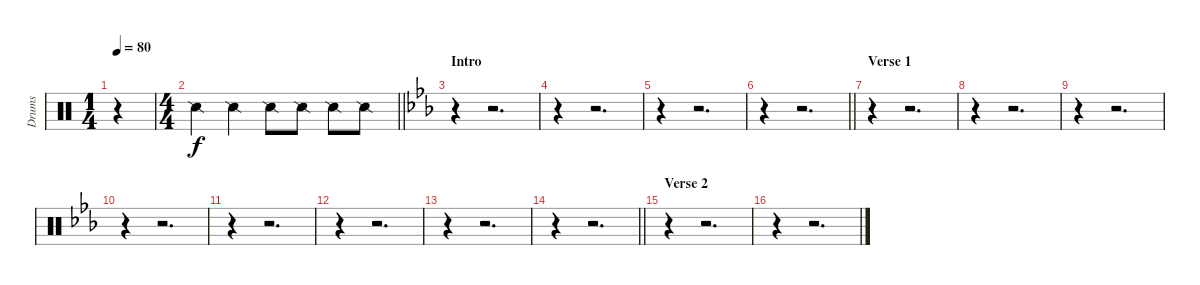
\track ("Drums" "Drums") {instrument percussion}
\staff {score}
\articulation defaults
\voice
\ts (1 4)
\tempo 80
\clef neutral
\ks c
r.4{dy f} |
\ts (4 4)
\barLineRight lightlight "Snare (side stick) 2".4 "Snare (side stick) 2".4 "Snare (side stick) 2".8 "Snare (side stick) 2".8 "Snare (side stick) 2".8 "Snare (side stick) 2".8
|
\section ("" "Intro")
\ks eb
r.4 r.2{d} |
r.4 r.2{d} |
r.4 r.2{d} |
\barLineRight lightlight
r.4 r.2{d} |
\section ("" "Verse 1")
r.4 r.2{d} |
r.4 r.2{d} |
r.4 r.2{d} |
r.4 r.2{d} |
r.4 r.2{d} |
r.4 r.2{d} |
r.4 r.2{d} |
\barLineRight lightlight
r.4 r.2{d} |
\section ("" "Verse 2")
r.4 r.2{d} |
r.4 r.2{d}
\voice
\clef neutral
\ottava regular
\simile none
\ks c
r.4{dy f} |
\barLineRight lightlight
|
\ks eb
|
|
|
\barLineRight lightlight
|
|
|
|
|
|
|
|
\barLineRight lightlight
|
|
